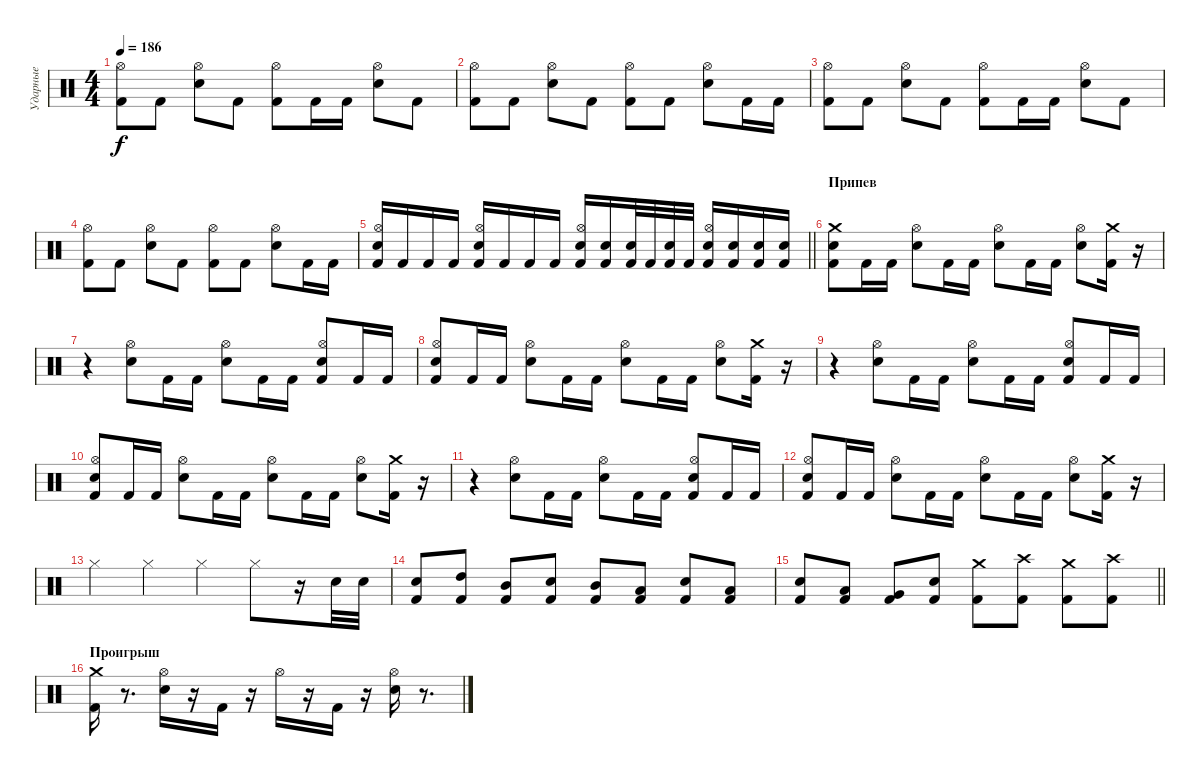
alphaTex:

\track ("Ударные" "Ударные") {instrument percussion}
\staff {score}
\articulation defaults
\ts (4 4)
\tempo 186
\clef neutral
\ks c
("Kick (hit) 2" "Hi-Hat (open)").8{dy f} "Kick (hit) 2".8 ("Snare (hit) 2" "Hi-Hat (open)").8 "Kick (hit) 2".8 ("Kick (hit) 2" "Hi-Hat (open)").8 "Kick (hit) 2".16 "Kick (hit) 2".16 ("Snare (hit) 2" "Hi-Hat (open)").8 "Kick (hit) 2".8 |
("Kick (hit) 2" "Hi-Hat (open)").8 "Kick (hit) 2".8 ("Snare (hit) 2" "Hi-Hat (open)").8 "Kick (hit) 2".8 ("Kick (hit) 2" "Hi-Hat (open)").8 "Kick (hit) 2".8 ("Snare (hit) 2" "Hi-Hat (open)").8 "Kick (hit) 2".16 "Kick (hit) 2".16 |
("Kick (hit) 2" "Hi-Hat (open)").8 "Kick (hit) 2".8 ("Snare (hit) 2" "Hi-Hat (open)").8 "Kick (hit) 2".8 ("Kick (hit) 2" "Hi-Hat (open)").8 "Kick (hit) 2".16 "Kick (hit) 2".16 ("Snare (hit) 2" "Hi-Hat (open)").8 "Kick (hit) 2".8 |
("Kick (hit) 2" "Hi-Hat (open)").8 "Kick (hit) 2".8 ("Snare (hit) 2" "Hi-Hat (open)").8 "Kick (hit) 2".8 ("Kick (hit) 2" "Hi-Hat (open)").8 "Kick (hit) 2".8 ("Snare (hit) 2" "Hi-Hat (open)").8 "Kick (hit) 2".16 "Kick (hit) 2".16 |
\barLineRight lightlight
("Kick (hit) 2" "Snare (hit) 2" "Hi-Hat (open)").16 "Kick (hit) 2".16 "Kick (hit) 2".16 "Kick (hit) 2".16 ("Kick (hit) 2" "Snare (hit) 2" "Hi-Hat (open)").16 "Kick (hit) 2".16 "Kick (hit) 2".16 "Kick (hit) 2".16 ("Kick (hit) 2" "Snare (hit) 2" "Hi-Hat (open)").16 ("Kick (hit) 2" "Snare (hit) 2").16 ("Kick (hit) 2" "Snare (hit) 2").32 "Kick (hit) 2".32 ("Kick (hit) 2" "Snare (hit) 2").32 "Kick (hit) 2".32 ("Kick (hit) 2" "Snare (hit) 2" "Hi-Hat (open)").16 ("Kick (hit) 2" "Snare (hit) 2").16 ("Kick (hit) 2" "Snare (hit) 2").16 ("Kick (hit) 2" "Snare (hit) 2").16 |
\section ("" "Припев")
("Kick (hit) 2" "Snare (hit) 2" "Crash medium (hit)").8 "Kick (hit) 2".16 "Kick (hit) 2".16 ("Snare (hit) 2" "Hi-Hat (open)").8 "Kick (hit) 2".16 "Kick (hit) 2".16 ("Snare (hit) 2" "Hi-Hat (open)").8 "Kick (hit) 2".16 "Kick (hit) 2".16 ("Snare (hit) 2" "Hi-Hat (open)").8 ("Kick (hit) 2" "Crash medium (hit)").16 r.16 |
r.4 ("Snare (hit) 2" "Hi-Hat (open)").8 "Kick (hit) 2".16 "Kick (hit) 2".16 ("Snare (hit) 2" "Hi-Hat (open)").8 "Kick (hit) 2".16 "Kick (hit) 2".16 ("Kick (hit) 2" "Snare (hit) 2" "Hi-Hat (open)").8 "Kick (hit) 2".16 "Kick (hit) 2".16 |
("Kick (hit) 2" "Snare (hit) 2" "Hi-Hat (open)").8 "Kick (hit) 2".16 "Kick (hit) 2".16 ("Snare (hit) 2" "Hi-Hat (open)").8 "Kick (hit) 2".16 "Kick (hit) 2".16 ("Snare (hit) 2" "Hi-Hat (open)").8 "Kick (hit) 2".16 "Kick (hit) 2".16 ("Snare (hit) 2" "Hi-Hat (open)").8 ("Kick (hit) 2" "Crash medium (hit)").16 r.16 |
r.4 ("Snare (hit) 2" "Hi-Hat (open)").8 "Kick (hit) 2".16 "Kick (hit) 2".16 ("Snare (hit) 2" "Hi-Hat (open)").8 "Kick (hit) 2".16 "Kick (hit) 2".16 ("Kick (hit) 2" "Snare (hit) 2" "Hi-Hat (open)").8 "Kick (hit) 2".16 "Kick (hit) 2".16 |
("Kick (hit) 2" "Snare (hit) 2" "Hi-Hat (open)").8 "Kick (hit) 2".16 "Kick (hit) 2".16 ("Snare (hit) 2" "Hi-Hat (open)").8 "Kick (hit) 2".16 "Kick (hit) 2".16 ("Snare (hit) 2" "Hi-Hat (open)").8 "Kick (hit) 2".16 "Kick (hit) 2".16 ("Snare (hit) 2" "Hi-Hat (open)").8 ("Kick (hit) 2" "Crash medium (hit)").16 r.16 |
r.4 ("Snare (hit) 2" "Hi-Hat (open)").8 "Kick (hit) 2".16 "Kick (hit) 2".16 ("Snare (hit) 2" "Hi-Hat (open)").8 "Kick (hit) 2".16 "Kick (hit) 2".16 ("Kick (hit) 2" "Snare (hit) 2" "Hi-Hat (open)").8 "Kick (hit) 2".16 "Kick (hit) 2".16 |
("Kick (hit) 2" "Snare (hit) 2" "Hi-Hat (open)").8 "Kick (hit) 2".16 "Kick (hit) 2".16 ("Snare (hit) 2" "Hi-Hat (open)").8 "Kick (hit) 2".16 "Kick (hit) 2".16 ("Snare (hit) 2" "Hi-Hat (open)").8 "Kick (hit) 2".16 "Kick (hit) 2".16 ("Snare (hit) 2" "Hi-Hat (open)").8 ("Kick (hit) 2" "Crash medium (hit)").16 r.16 |
"Hi-Hat (closed)".4 "Hi-Hat (closed)".4 "Hi-Hat (closed)".4 "Hi-Hat (closed)".8 r.16 "Snare (hit) 2".32 "Snare (hit) 2".32 |
("Kick (hit) 2" "Snare (hit) 2").8 ("Kick (hit) 2" "High Tom (hit)").8 ("Kick (hit) 2" "Mid Tom (hit)").8 ("Kick (hit) 2" "Snare (hit) 2").8 ("Kick (hit) 2" "Mid Tom (hit)").8 ("Kick (hit) 2" "Low Tom (hit)").8 ("Kick (hit) 2" "Snare (hit) 2").8 ("Kick (hit) 2" "Low Tom (hit)").8 |
\barLineRight lightlight
("Kick (hit) 2" "Snare (hit) 2").8 ("Kick (hit) 2" "Low Tom (hit)").8 ("Kick (hit) 2" "Very Low Tom (hit)").8 ("Kick (hit) 2" "Snare (hit) 2").8 ("Kick (hit) 2" "Crash medium (hit)").8 ("Kick (hit) 2" "Crash high (hit)").8 ("Kick (hit) 2" "Crash medium (hit)").8 ("Kick (hit) 2" "Crash high (hit)").8 |
\section ("" "Проигрыш")
("Kick (hit) 2" "Crash medium (hit)").16 r.8{d} ("Snare (hit) 2" "Hi-Hat (open)").16 r.16 "Kick (hit) 2".16 r.16 "Hi-Hat (open)".16 r.16 "Kick (hit) 2".16 r.16 ("Snare (hit) 2" "Hi-Hat (open)").16 r.8{d}
